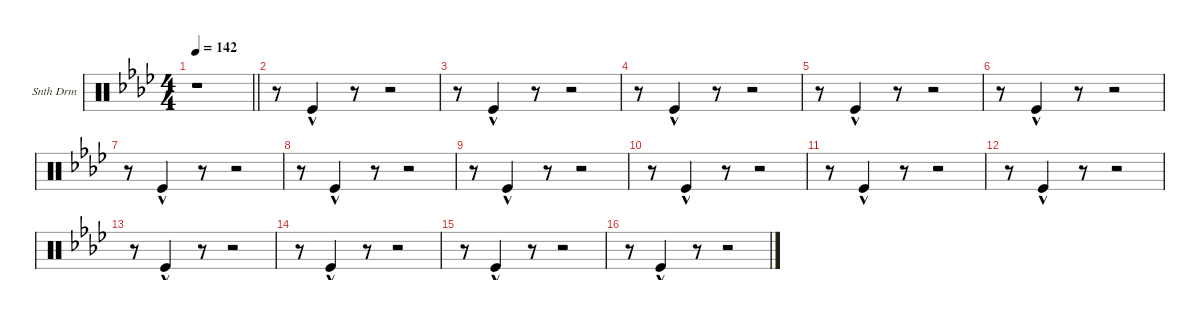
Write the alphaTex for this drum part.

\defaultSystemsLayout 4
\hideDynamics
\bracketExtendMode groupsimilarinstruments
\firstSystemTrackNameOrientation horizontal
\otherSystemsTrackNameOrientation horizontal
\track ("Synth Drum" "Snth Drm") {multiBarRest instrument percussion}
\staff {score}
\articulation defaults
\ts (4 4)
\tempo 142
\clef neutral
\barLineRight lightlight
\ks ab
r.1{dy f} |
r.8 "Kick (hit)"{hac}.4 r.8 r.2 |
r.8 "Kick (hit)"{hac}.4 r.8 r.2 |
r.8 "Kick (hit)"{hac}.4 r.8 r.2 |
r.8 "Kick (hit)"{hac}.4 r.8 r.2 |
r.8 "Kick (hit)"{hac}.4 r.8 r.2 |
r.8 "Kick (hit)"{hac}.4 r.8 r.2 |
r.8 "Kick (hit)"{hac}.4 r.8 r.2 |
r.8 "Kick (hit)"{hac}.4 r.8 r.2 |
r.8 "Kick (hit)"{hac}.4 r.8 r.2 |
r.8 "Kick (hit)"{hac}.4 r.8 r.2 |
r.8 "Kick (hit)"{hac}.4 r.8 r.2 |
r.8 "Kick (hit)"{hac}.4 r.8 r.2 |
r.8 "Kick (hit)"{hac}.4 r.8 r.2 |
r.8 "Kick (hit)"{hac}.4 r.8 r.2 |
r.8 "Kick (hit)"{hac}.4 r.8 r.2
